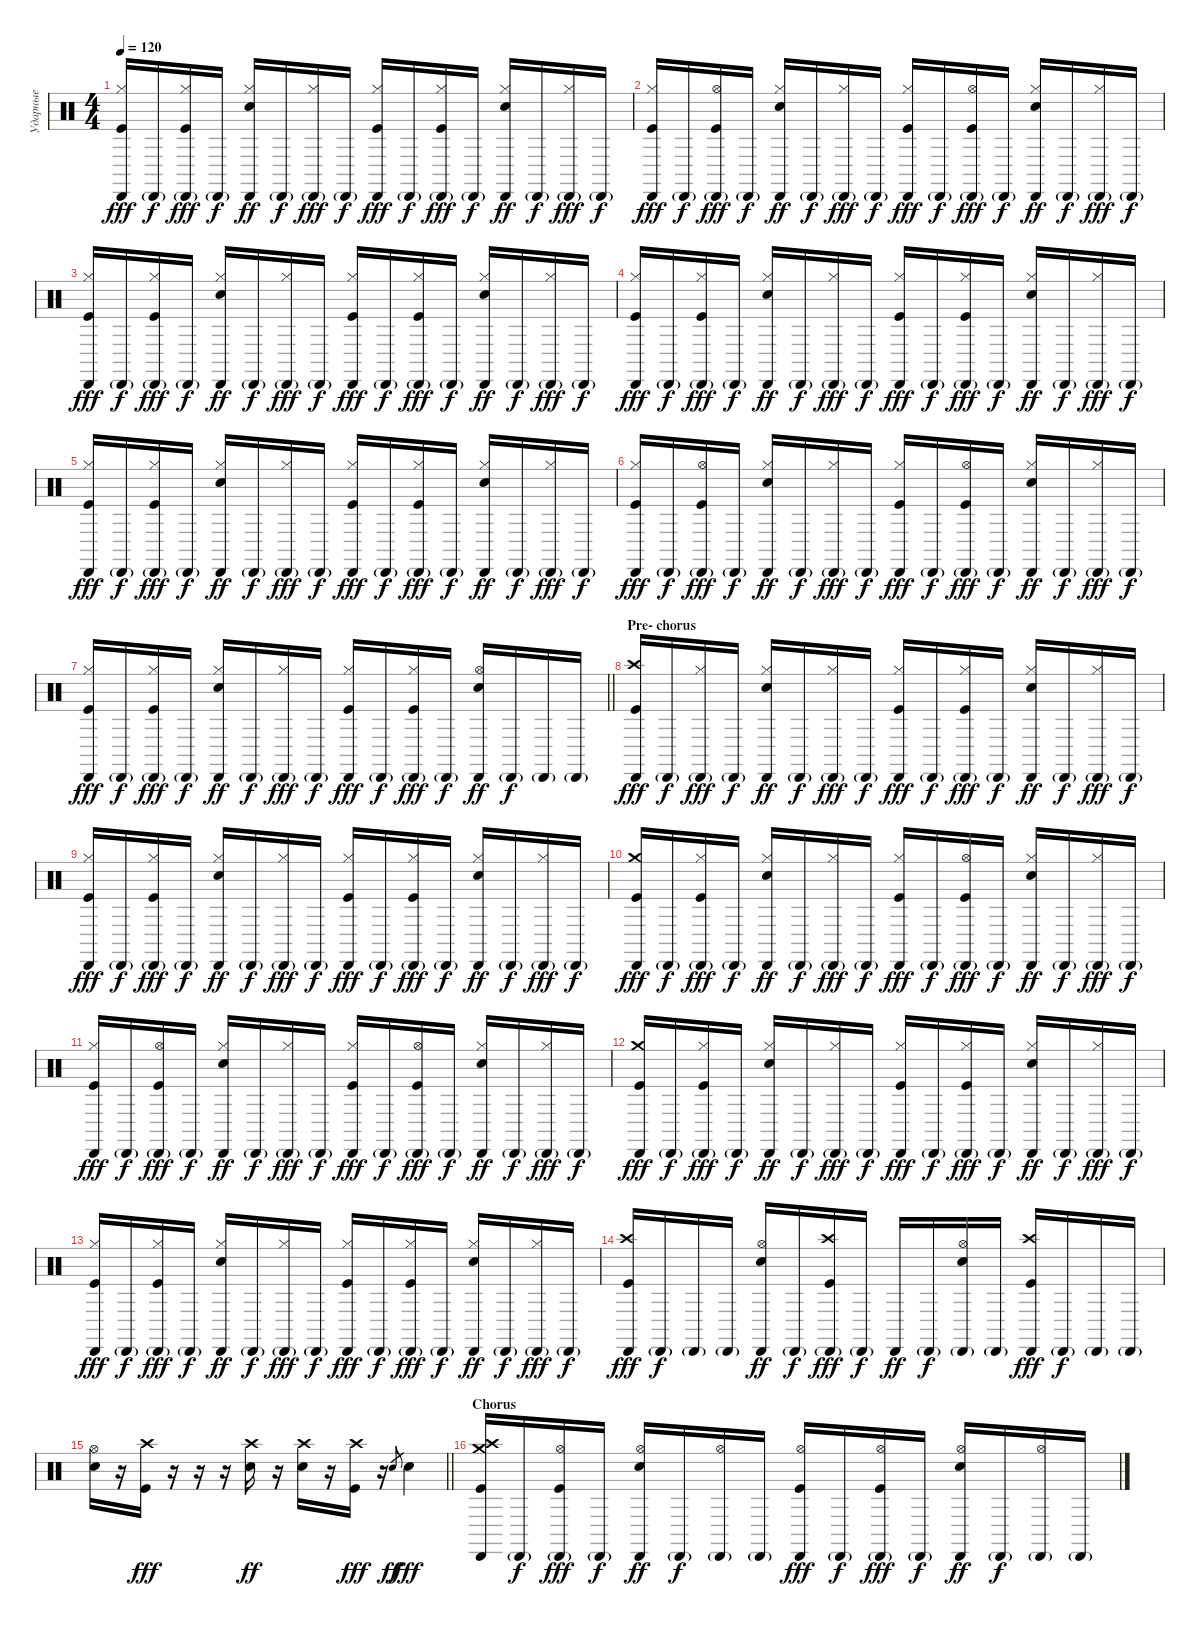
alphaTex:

\track ("Ударные" "Ударные") {instrument percussion}
\staff {score}
\articulation defaults
\ts (4 4)
\tempo 120
\clef neutral
\ks c
("Hi-Hat (closed)" "Cabasa (hit)" "Kick (hit)").16{dy fff} "Cabasa (hit)"{g}.16{dy f} ("Hi-Hat (closed)" "Cabasa (hit)"{g} "Kick (hit)").16{dy fff} "Cabasa (hit)"{g}.16{dy f} ("Hi-Hat (closed)" "Cabasa (hit)" "Snare (hit) 2").16{dy ff} "Cabasa (hit)"{g}.16{dy f} ("Hi-Hat (closed)" "Cabasa (hit)"{g}).16{dy fff} "Cabasa (hit)"{g}.16{dy f} ("Hi-Hat (closed)" "Cabasa (hit)" "Kick (hit)").16{dy fff} "Cabasa (hit)"{g}.16{dy f} ("Hi-Hat (closed)" "Cabasa (hit)"{g} "Kick (hit)").16{dy fff} "Cabasa (hit)"{g}.16{dy f} ("Hi-Hat (closed)" "Cabasa (hit)" "Snare (hit) 2").16{dy ff} "Cabasa (hit)"{g}.16{dy f} ("Hi-Hat (closed)" "Cabasa (hit)"{g}).16{dy fff} "Cabasa (hit)"{g}.16{dy f} |
("Hi-Hat (closed)" "Cabasa (hit)" "Kick (hit)").16{dy fff} "Cabasa (hit)"{g}.16{dy f} ("Hi-Hat (open)" "Cabasa (hit)"{g} "Kick (hit)").16{dy fff} "Cabasa (hit)"{g}.16{dy f} ("Hi-Hat (closed)" "Cabasa (hit)" "Snare (hit) 2").16{dy ff} "Cabasa (hit)"{g}.16{dy f} ("Hi-Hat (closed)" "Cabasa (hit)"{g}).16{dy fff} "Cabasa (hit)"{g}.16{dy f} ("Hi-Hat (closed)" "Cabasa (hit)" "Kick (hit)").16{dy fff} "Cabasa (hit)"{g}.16{dy f} ("Hi-Hat (open)" "Cabasa (hit)"{g} "Kick (hit)").16{dy fff} "Cabasa (hit)"{g}.16{dy f} ("Hi-Hat (closed)" "Cabasa (hit)" "Snare (hit) 2").16{dy ff} "Cabasa (hit)"{g}.16{dy f} ("Hi-Hat (closed)" "Cabasa (hit)"{g}).16{dy fff} "Cabasa (hit)"{g}.16{dy f} |
("Hi-Hat (closed)" "Cabasa (hit)" "Kick (hit)").16{dy fff} "Cabasa (hit)"{g}.16{dy f} ("Hi-Hat (closed)" "Cabasa (hit)"{g} "Kick (hit)").16{dy fff} "Cabasa (hit)"{g}.16{dy f} ("Hi-Hat (closed)" "Cabasa (hit)" "Snare (hit) 2").16{dy ff} "Cabasa (hit)"{g}.16{dy f} ("Hi-Hat (closed)" "Cabasa (hit)"{g}).16{dy fff} "Cabasa (hit)"{g}.16{dy f} ("Hi-Hat (closed)" "Cabasa (hit)" "Kick (hit)").16{dy fff} "Cabasa (hit)"{g}.16{dy f} ("Hi-Hat (closed)" "Cabasa (hit)"{g} "Kick (hit)").16{dy fff} "Cabasa (hit)"{g}.16{dy f} ("Hi-Hat (closed)" "Cabasa (hit)" "Snare (hit) 2").16{dy ff} "Cabasa (hit)"{g}.16{dy f} ("Hi-Hat (closed)" "Cabasa (hit)"{g}).16{dy fff} "Cabasa (hit)"{g}.16{dy f} |
("Hi-Hat (closed)" "Cabasa (hit)" "Kick (hit)").16{dy fff} "Cabasa (hit)"{g}.16{dy f} ("Hi-Hat (closed)" "Cabasa (hit)"{g} "Kick (hit)").16{dy fff} "Cabasa (hit)"{g}.16{dy f} ("Hi-Hat (closed)" "Cabasa (hit)" "Snare (hit) 2").16{dy ff} "Cabasa (hit)"{g}.16{dy f} ("Hi-Hat (closed)" "Cabasa (hit)"{g}).16{dy fff} "Cabasa (hit)"{g}.16{dy f} ("Hi-Hat (closed)" "Cabasa (hit)" "Kick (hit)").16{dy fff} "Cabasa (hit)"{g}.16{dy f} ("Hi-Hat (closed)" "Cabasa (hit)"{g} "Kick (hit)").16{dy fff} "Cabasa (hit)"{g}.16{dy f} ("Hi-Hat (closed)" "Cabasa (hit)" "Snare (hit) 2").16{dy ff} "Cabasa (hit)"{g}.16{dy f} ("Hi-Hat (closed)" "Cabasa (hit)"{g}).16{dy fff} "Cabasa (hit)"{g}.16{dy f} |
("Hi-Hat (closed)" "Cabasa (hit)" "Kick (hit)").16{dy fff} "Cabasa (hit)"{g}.16{dy f} ("Hi-Hat (closed)" "Cabasa (hit)"{g} "Kick (hit)").16{dy fff} "Cabasa (hit)"{g}.16{dy f} ("Hi-Hat (closed)" "Cabasa (hit)" "Snare (hit) 2").16{dy ff} "Cabasa (hit)"{g}.16{dy f} ("Hi-Hat (closed)" "Cabasa (hit)"{g}).16{dy fff} "Cabasa (hit)"{g}.16{dy f} ("Hi-Hat (closed)" "Cabasa (hit)" "Kick (hit)").16{dy fff} "Cabasa (hit)"{g}.16{dy f} ("Hi-Hat (closed)" "Cabasa (hit)"{g} "Kick (hit)").16{dy fff} "Cabasa (hit)"{g}.16{dy f} ("Hi-Hat (closed)" "Cabasa (hit)" "Snare (hit) 2").16{dy ff} "Cabasa (hit)"{g}.16{dy f} ("Hi-Hat (closed)" "Cabasa (hit)"{g}).16{dy fff} "Cabasa (hit)"{g}.16{dy f} |
("Hi-Hat (closed)" "Cabasa (hit)" "Kick (hit)").16{dy fff} "Cabasa (hit)"{g}.16{dy f} ("Hi-Hat (open)" "Cabasa (hit)"{g} "Kick (hit)").16{dy fff} "Cabasa (hit)"{g}.16{dy f} ("Hi-Hat (closed)" "Cabasa (hit)" "Snare (hit) 2").16{dy ff} "Cabasa (hit)"{g}.16{dy f} ("Hi-Hat (closed)" "Cabasa (hit)"{g}).16{dy fff} "Cabasa (hit)"{g}.16{dy f} ("Hi-Hat (closed)" "Cabasa (hit)" "Kick (hit)").16{dy fff} "Cabasa (hit)"{g}.16{dy f} ("Hi-Hat (open)" "Cabasa (hit)"{g} "Kick (hit)").16{dy fff} "Cabasa (hit)"{g}.16{dy f} ("Hi-Hat (closed)" "Cabasa (hit)" "Snare (hit) 2").16{dy ff} "Cabasa (hit)"{g}.16{dy f} ("Hi-Hat (closed)" "Cabasa (hit)"{g}).16{dy fff} "Cabasa (hit)"{g}.16{dy f} |
\barLineRight lightlight
("Hi-Hat (closed)" "Cabasa (hit)" "Kick (hit)").16{dy fff} "Cabasa (hit)"{g}.16{dy f} ("Hi-Hat (closed)" "Cabasa (hit)"{g} "Kick (hit)").16{dy fff} "Cabasa (hit)"{g}.16{dy f} ("Hi-Hat (closed)" "Cabasa (hit)" "Snare (hit) 2").16{dy ff} "Cabasa (hit)"{g}.16{dy f} ("Hi-Hat (closed)" "Cabasa (hit)"{g}).16{dy fff} "Cabasa (hit)"{g}.16{dy f} ("Hi-Hat (closed)" "Cabasa (hit)" "Kick (hit)").16{dy fff} "Cabasa (hit)"{g}.16{dy f} ("Hi-Hat (closed)" "Cabasa (hit)"{g} "Kick (hit)").16{dy fff} "Cabasa (hit)"{g}.16{dy f} ("Hi-Hat (open)" "Cabasa (hit)" "Snare (hit) 2").16{dy ff} "Cabasa (hit)"{g}.16{dy f} "Cabasa (hit)"{g}.16 "Cabasa (hit)"{g}.16 |
\section ("" "Pre- chorus")
("Crash high (hit)" "Cabasa (hit)" "Kick (hit)").16{dy fff} "Cabasa (hit)"{g}.16{dy f} ("Hi-Hat (closed)" "Cabasa (hit)"{g}).16{dy fff} "Cabasa (hit)"{g}.16{dy f} ("Hi-Hat (closed)" "Cabasa (hit)" "Snare (hit) 2").16{dy ff} "Cabasa (hit)"{g}.16{dy f} ("Hi-Hat (closed)" "Cabasa (hit)"{g}).16{dy fff} "Cabasa (hit)"{g}.16{dy f} ("Hi-Hat (closed)" "Cabasa (hit)" "Kick (hit)").16{dy fff} "Cabasa (hit)"{g}.16{dy f} ("Hi-Hat (closed)" "Cabasa (hit)"{g} "Kick (hit)").16{dy fff} "Cabasa (hit)"{g}.16{dy f} ("Hi-Hat (closed)" "Cabasa (hit)" "Snare (hit) 2").16{dy ff} "Cabasa (hit)"{g}.16{dy f} ("Hi-Hat (closed)" "Cabasa (hit)"{g}).16{dy fff} "Cabasa (hit)"{g}.16{dy f} |
("Hi-Hat (closed)" "Cabasa (hit)" "Kick (hit)").16{dy fff} "Cabasa (hit)"{g}.16{dy f} ("Hi-Hat (closed)" "Cabasa (hit)"{g} "Kick (hit)").16{dy fff} "Cabasa (hit)"{g}.16{dy f} ("Hi-Hat (closed)" "Cabasa (hit)" "Snare (hit) 2").16{dy ff} "Cabasa (hit)"{g}.16{dy f} ("Hi-Hat (closed)" "Cabasa (hit)"{g}).16{dy fff} "Cabasa (hit)"{g}.16{dy f} ("Hi-Hat (closed)" "Cabasa (hit)" "Kick (hit)").16{dy fff} "Cabasa (hit)"{g}.16{dy f} ("Hi-Hat (closed)" "Cabasa (hit)"{g} "Kick (hit)").16{dy fff} "Cabasa (hit)"{g}.16{dy f} ("Hi-Hat (closed)" "Cabasa (hit)" "Snare (hit) 2").16{dy ff} "Cabasa (hit)"{g}.16{dy f} ("Hi-Hat (closed)" "Cabasa (hit)"{g}).16{dy fff} "Cabasa (hit)"{g}.16{dy f} |
("Crash medium (hit)" "Cabasa (hit)" "Kick (hit)").16{dy fff} "Cabasa (hit)"{g}.16{dy f} ("Hi-Hat (closed)" "Cabasa (hit)"{g} "Kick (hit)").16{dy fff} "Cabasa (hit)"{g}.16{dy f} ("Hi-Hat (closed)" "Cabasa (hit)" "Snare (hit) 2").16{dy ff} "Cabasa (hit)"{g}.16{dy f} ("Hi-Hat (closed)" "Cabasa (hit)"{g}).16{dy fff} "Cabasa (hit)"{g}.16{dy f} ("Hi-Hat (closed)" "Cabasa (hit)" "Kick (hit)").16{dy fff} "Cabasa (hit)"{g}.16{dy f} ("Hi-Hat (open)" "Cabasa (hit)"{g} "Kick (hit)").16{dy fff} "Cabasa (hit)"{g}.16{dy f} ("Hi-Hat (closed)" "Cabasa (hit)" "Snare (hit) 2").16{dy ff} "Cabasa (hit)"{g}.16{dy f} ("Hi-Hat (closed)" "Cabasa (hit)"{g}).16{dy fff} "Cabasa (hit)"{g}.16{dy f} |
("Hi-Hat (closed)" "Cabasa (hit)" "Kick (hit)").16{dy fff} "Cabasa (hit)"{g}.16{dy f} ("Hi-Hat (open)" "Cabasa (hit)"{g} "Kick (hit)").16{dy fff} "Cabasa (hit)"{g}.16{dy f} ("Hi-Hat (closed)" "Cabasa (hit)" "Snare (hit) 2").16{dy ff} "Cabasa (hit)"{g}.16{dy f} ("Hi-Hat (closed)" "Cabasa (hit)"{g}).16{dy fff} "Cabasa (hit)"{g}.16{dy f} ("Hi-Hat (closed)" "Cabasa (hit)" "Kick (hit)").16{dy fff} "Cabasa (hit)"{g}.16{dy f} ("Hi-Hat (open)" "Cabasa (hit)"{g} "Kick (hit)").16{dy fff} "Cabasa (hit)"{g}.16{dy f} ("Hi-Hat (closed)" "Cabasa (hit)" "Snare (hit) 2").16{dy ff} "Cabasa (hit)"{g}.16{dy f} ("Hi-Hat (closed)" "Cabasa (hit)"{g}).16{dy fff} "Cabasa (hit)"{g}.16{dy f} |
("Crash medium (hit)" "Cabasa (hit)" "Kick (hit)").16{dy fff} "Cabasa (hit)"{g}.16{dy f} ("Hi-Hat (closed)" "Cabasa (hit)"{g} "Kick (hit)").16{dy fff} "Cabasa (hit)"{g}.16{dy f} ("Hi-Hat (closed)" "Cabasa (hit)" "Snare (hit) 2").16{dy ff} "Cabasa (hit)"{g}.16{dy f} ("Hi-Hat (closed)" "Cabasa (hit)"{g}).16{dy fff} "Cabasa (hit)"{g}.16{dy f} ("Hi-Hat (closed)" "Cabasa (hit)" "Kick (hit)").16{dy fff} "Cabasa (hit)"{g}.16{dy f} ("Hi-Hat (closed)" "Cabasa (hit)"{g} "Kick (hit)").16{dy fff} "Cabasa (hit)"{g}.16{dy f} ("Hi-Hat (closed)" "Cabasa (hit)" "Snare (hit) 2").16{dy ff} "Cabasa (hit)"{g}.16{dy f} ("Hi-Hat (closed)" "Cabasa (hit)"{g}).16{dy fff} "Cabasa (hit)"{g}.16{dy f} |
("Hi-Hat (closed)" "Cabasa (hit)" "Kick (hit)").16{dy fff} "Cabasa (hit)"{g}.16{dy f} ("Hi-Hat (closed)" "Cabasa (hit)"{g} "Kick (hit)").16{dy fff} "Cabasa (hit)"{g}.16{dy f} ("Hi-Hat (closed)" "Cabasa (hit)" "Snare (hit) 2").16{dy ff} "Cabasa (hit)"{g}.16{dy f} ("Hi-Hat (closed)" "Cabasa (hit)"{g}).16{dy fff} "Cabasa (hit)"{g}.16{dy f} ("Hi-Hat (closed)" "Cabasa (hit)" "Kick (hit)").16{dy fff} "Cabasa (hit)"{g}.16{dy f} ("Hi-Hat (closed)" "Cabasa (hit)"{g} "Kick (hit)").16{dy fff} "Cabasa (hit)"{g}.16{dy f} ("Hi-Hat (closed)" "Cabasa (hit)" "Snare (hit) 2").16{dy ff} "Cabasa (hit)"{g}.16{dy f} ("Hi-Hat (closed)" "Cabasa (hit)"{g}).16{dy fff} "Cabasa (hit)"{g}.16{dy f} |
("Crash high (hit)" "Cabasa (hit)" "Kick (hit)").16{dy fff} "Cabasa (hit)"{g}.16{dy f} "Cabasa (hit)"{g}.16 "Cabasa (hit)"{g}.16 ("Hi-Hat (open)" "Cabasa (hit)" "Snare (hit) 2").16{dy ff} "Cabasa (hit)"{g}.16{dy f} ("Crash high (hit)" "Cabasa (hit)"{g} "Kick (hit)").16{dy fff} "Cabasa (hit)"{g}.16{dy f} "Cabasa (hit)".16{dy ff} "Cabasa (hit)"{g}.16{dy f} ("Hi-Hat (open)" "Cabasa (hit)"{g} "Snare (hit) 2").16 "Cabasa (hit)"{g}.16 ("Crash high (hit)" "Cabasa (hit)" "Kick (hit)").16{dy fff} "Cabasa (hit)"{g}.16{dy f} "Cabasa (hit)"{g}.16 "Cabasa (hit)"{g}.16 |
\barLineRight lightlight
("Hi-Hat (open)" "Snare (hit) 2").16 r.16 ("Crash high (hit)" "Kick (hit)").16{dy fff} r.16 r.16 r.16 ("Crash high (hit)" "Snare (hit) 2").16{dy ff} r.16 ("Crash high (hit)" "Snare (hit) 2").16 r.16 ("Crash high (hit)" "Kick (hit)").16{dy fff} r.16 "Snare (hit) 2".8{gr dy ff} "Snare (hit) 2".4{dy fff} |
\section ("" "Chorus")
("Crash medium (hit)" "Cabasa (hit)" "Crash high (hit)" "Kick (hit)").16 "Cabasa (hit)"{g}.16{dy f} ("Hi-Hat (open)" "Cabasa (hit)"{g} "Kick (hit)").16{dy fff} "Cabasa (hit)"{g}.16{dy f} ("Hi-Hat (open)" "Cabasa (hit)" "Snare (hit) 2").16{dy ff} "Cabasa (hit)"{g}.16{dy f} ("Hi-Hat (open)" "Cabasa (hit)"{g}).16 "Cabasa (hit)"{g}.16 ("Hi-Hat (open)" "Cabasa (hit)" "Kick (hit)").16{dy fff} "Cabasa (hit)"{g}.16{dy f} ("Hi-Hat (open)" "Cabasa (hit)"{g} "Kick (hit)").16{dy fff} "Cabasa (hit)"{g}.16{dy f} ("Hi-Hat (open)" "Cabasa (hit)" "Snare (hit) 2").16{dy ff} "Cabasa (hit)"{g}.16{dy f} ("Hi-Hat (open)" "Cabasa (hit)"{g}).16 "Cabasa (hit)"{g}.16
